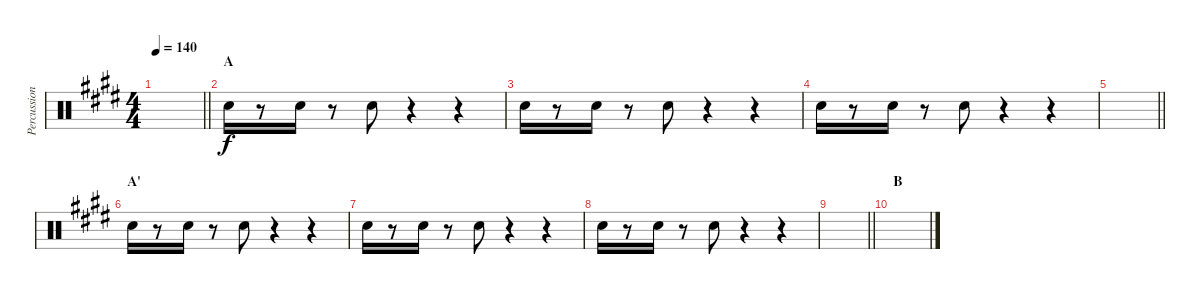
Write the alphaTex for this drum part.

\track ("Percussion" "Percussion") {instrument percussion}
\staff {score}
\articulation defaults
\ts (4 4)
\tempo 140
\clef neutral
\barLineRight lightlight
\ks e
|
\section ("" "A")
"Hand Clap (hit)".16{volume 15} r.8 "Hand Clap (hit)".16 r.8 "Hand Clap (hit)".8 r.4 r.4 |
"Hand Clap (hit)".16 r.8 "Hand Clap (hit)".16 r.8 "Hand Clap (hit)".8 r.4 r.4 |
"Hand Clap (hit)".16 r.8 "Hand Clap (hit)".16 r.8 "Hand Clap (hit)".8 r.4 r.4 |
\barLineRight lightlight
|
\section ("" "A'")
"Hand Clap (hit)".16 r.8 "Hand Clap (hit)".16 r.8 "Hand Clap (hit)".8 r.4 r.4 |
"Hand Clap (hit)".16 r.8 "Hand Clap (hit)".16 r.8 "Hand Clap (hit)".8 r.4 r.4 |
"Hand Clap (hit)".16 r.8 "Hand Clap (hit)".16 r.8 "Hand Clap (hit)".8 r.4 r.4 |
\barLineRight lightlight
|
\section ("" "B")
